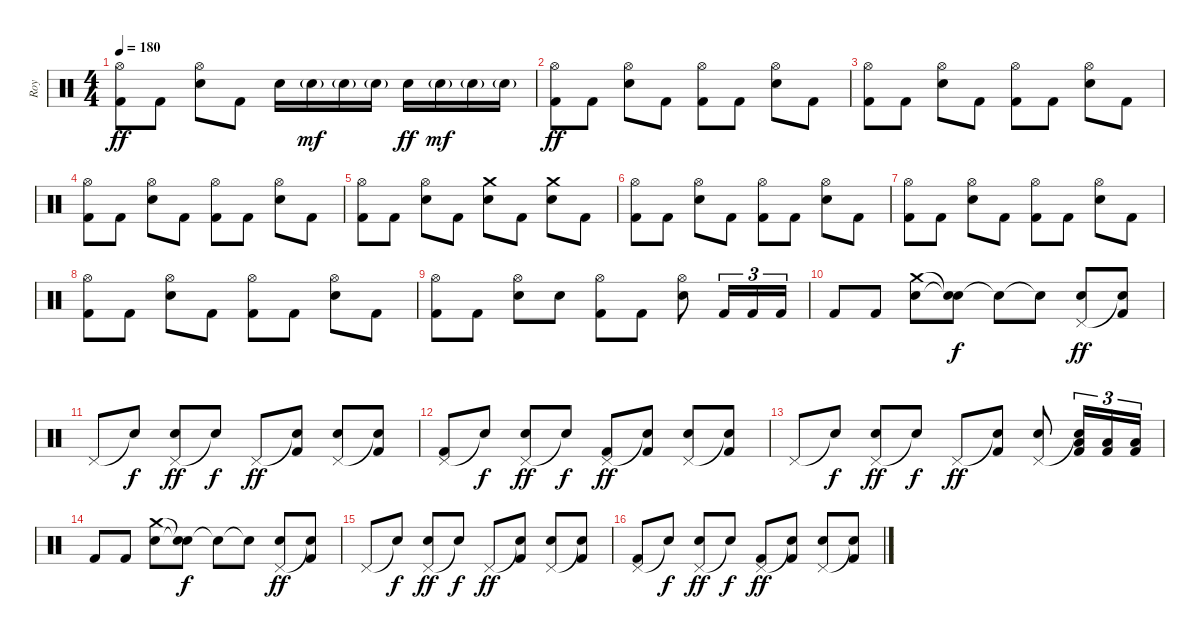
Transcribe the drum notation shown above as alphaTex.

\track ("Roy" "Roy") {instrument percussion}
\staff {score}
\articulation defaults
\ts (4 4)
\tempo 180
\clef neutral
\ks c
("Hi-Hat (open)" "Kick (hit) 2").8{dy ff} "Kick (hit) 2".8 ("Hi-Hat (open)" "Electric Snare (hit)").8 "Kick (hit) 2".8 "Electric Snare (hit)".16 "Electric Snare (hit)"{g}.16{dy mf} "Electric Snare (hit)"{g}.16 "Electric Snare (hit)"{g}.16 "Electric Snare (hit)".16{dy ff} "Electric Snare (hit)"{g}.16{dy mf} "Electric Snare (hit)"{g}.16 "Electric Snare (hit)"{g}.16 |
("Hi-Hat (open)" "Kick (hit) 2").8{dy ff} "Kick (hit) 2".8 ("Hi-Hat (open)" "Electric Snare (hit)").8 "Kick (hit) 2".8 ("Hi-Hat (open)" "Kick (hit) 2").8 "Kick (hit) 2".8 ("Hi-Hat (open)" "Electric Snare (hit)").8 "Kick (hit) 2".8 |
("Hi-Hat (open)" "Kick (hit) 2").8 "Kick (hit) 2".8 ("Hi-Hat (open)" "Electric Snare (hit)").8 "Kick (hit) 2".8 ("Hi-Hat (open)" "Kick (hit) 2").8 "Kick (hit) 2".8 ("Hi-Hat (open)" "Electric Snare (hit)").8 "Kick (hit) 2".8 |
("Hi-Hat (open)" "Kick (hit) 2").8 "Kick (hit) 2".8 ("Hi-Hat (open)" "Electric Snare (hit)").8 "Kick (hit) 2".8 ("Hi-Hat (open)" "Kick (hit) 2").8 "Kick (hit) 2".8 ("Hi-Hat (open)" "Electric Snare (hit)").8 "Kick (hit) 2".8 |
("Hi-Hat (open)" "Kick (hit) 2").8 "Kick (hit) 2".8 ("Hi-Hat (open)" "Electric Snare (hit)").8 "Kick (hit) 2".8 ("Crash medium (hit)" "Electric Snare (hit)").8 "Kick (hit) 2".8 ("Crash medium (hit)" "Electric Snare (hit)").8 "Kick (hit) 2".8 |
("Hi-Hat (open)" "Kick (hit) 2").8 "Kick (hit) 2".8 ("Hi-Hat (open)" "Electric Snare (hit)").8 "Kick (hit) 2".8 ("Hi-Hat (open)" "Kick (hit) 2").8 "Kick (hit) 2".8 ("Hi-Hat (open)" "Electric Snare (hit)").8 "Kick (hit) 2".8 |
("Hi-Hat (open)" "Kick (hit) 2").8 "Kick (hit) 2".8 ("Hi-Hat (open)" "Electric Snare (hit)").8 "Kick (hit) 2".8 ("Hi-Hat (open)" "Kick (hit) 2").8 "Kick (hit) 2".8 ("Hi-Hat (open)" "Electric Snare (hit)").8 "Kick (hit) 2".8 |
("Hi-Hat (open)" "Kick (hit) 2").8 "Kick (hit) 2".8 ("Hi-Hat (open)" "Electric Snare (hit)").8 "Kick (hit) 2".8 ("Hi-Hat (open)" "Kick (hit) 2").8 "Kick (hit) 2".8 ("Hi-Hat (open)" "Electric Snare (hit)").8 "Kick (hit) 2".8 |
("Hi-Hat (open)" "Kick (hit) 2").8 "Kick (hit) 2".8 ("Hi-Hat (open)" "Electric Snare (hit)").8 "Electric Snare (hit)".8 ("Hi-Hat (open)" "Kick (hit) 2").8 "Kick (hit) 2".8 ("Hi-Hat (open)" "Electric Snare (hit)").8 "Kick (hit) 2".16{tu (3 2)} "Kick (hit) 2".16{tu (3 2)} "Kick (hit) 2".16{tu (3 2)} |
"Kick (hit) 2".8 "Kick (hit) 2".8 ("Crash medium (hit)" "Electric Snare (hit)").8 ("Snare (hit)"{t} "Snare (hit)"{t}).8{dy f} "Snare (hit)"{t}.8 "Snare (hit)"{t}.8 ("Pedal Hi-Hat (hit)" "Electric Snare (hit)").8{dy ff} ("Snare (hit)"{t} "Kick (hit) 2").8 |
"Pedal Hi-Hat (hit)".8 "Snare (hit)"{t}.8{dy f} ("Pedal Hi-Hat (hit)" "Electric Snare (hit)").8{dy ff} "Snare (hit)"{t}.8{dy f} "Pedal Hi-Hat (hit)".8{dy ff} ("Snare (hit)"{t} "Kick (hit) 2").8 ("Pedal Hi-Hat (hit)" "Electric Snare (hit)").8 ("Snare (hit)"{t} "Kick (hit) 2").8 |
("Pedal Hi-Hat (hit)" "Kick (hit) 2").8 "Snare (hit)"{t}.8{dy f} ("Pedal Hi-Hat (hit)" "Electric Snare (hit)").8{dy ff} "Snare (hit)"{t}.8{dy f} ("Pedal Hi-Hat (hit)" "Kick (hit) 2").8{dy ff} ("Snare (hit)"{t} "Kick (hit) 2").8 ("Pedal Hi-Hat (hit)" "Electric Snare (hit)").8 ("Snare (hit)"{t} "Kick (hit) 2").8 |
"Pedal Hi-Hat (hit)".8 "Snare (hit)"{t}.8{dy f} ("Pedal Hi-Hat (hit)" "Electric Snare (hit)").8{dy ff} "Snare (hit)"{t}.8{dy f} "Pedal Hi-Hat (hit)".8{dy ff} ("Snare (hit)"{t} "Kick (hit) 2").8 ("Pedal Hi-Hat (hit)" "Electric Snare (hit)").8 ("Snare (hit)"{t} "Low Tom (hit)" "Kick (hit) 2").16{tu (3 2)} ("Low Tom (hit)" "Kick (hit) 2").16{tu (3 2)} ("Low Tom (hit)" "Kick (hit) 2").16{tu (3 2)} |
"Kick (hit) 2".8 "Kick (hit) 2".8 ("Crash medium (hit)" "Electric Snare (hit)").8 ("Snare (hit)"{t} "Snare (hit)"{t}).8{dy f} "Snare (hit)"{t}.8 "Snare (hit)"{t}.8 ("Pedal Hi-Hat (hit)" "Electric Snare (hit)").8{dy ff} ("Snare (hit)"{t} "Kick (hit) 2").8 |
"Pedal Hi-Hat (hit)".8 "Snare (hit)"{t}.8{dy f} ("Pedal Hi-Hat (hit)" "Electric Snare (hit)").8{dy ff} "Snare (hit)"{t}.8{dy f} "Pedal Hi-Hat (hit)".8{dy ff} ("Snare (hit)"{t} "Kick (hit) 2").8 ("Pedal Hi-Hat (hit)" "Electric Snare (hit)").8 ("Snare (hit)"{t} "Kick (hit) 2").8 |
("Pedal Hi-Hat (hit)" "Kick (hit) 2").8 "Snare (hit)"{t}.8{dy f} ("Pedal Hi-Hat (hit)" "Electric Snare (hit)").8{dy ff} "Snare (hit)"{t}.8{dy f} ("Pedal Hi-Hat (hit)" "Kick (hit) 2").8{dy ff} ("Snare (hit)"{t} "Kick (hit) 2").8 ("Pedal Hi-Hat (hit)" "Electric Snare (hit)").8 ("Snare (hit)"{t} "Kick (hit) 2").8
